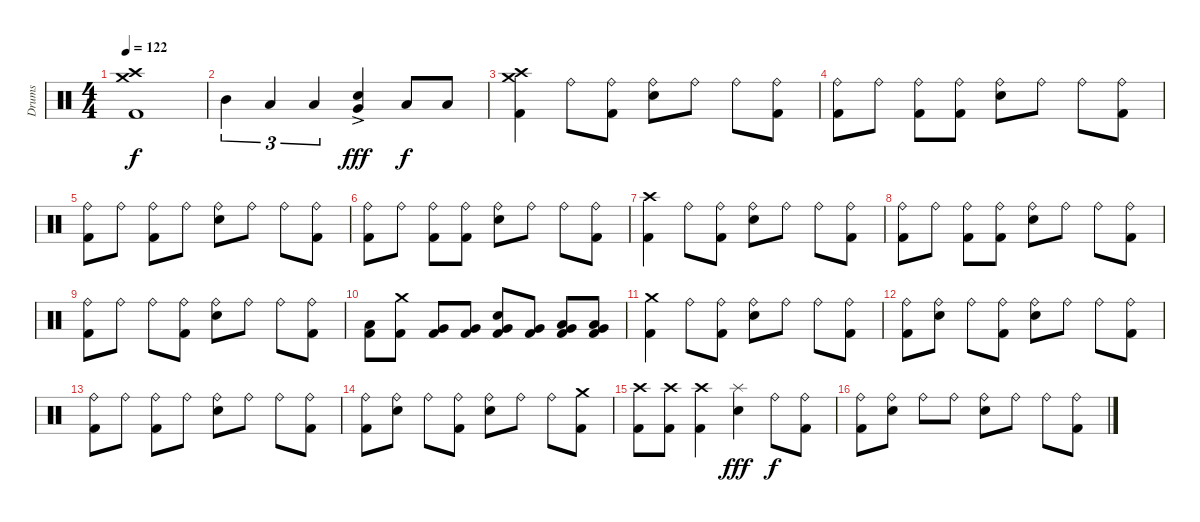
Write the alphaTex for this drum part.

\track ("Drums" "Drums") {instrument percussion}
\staff {score}
\articulation defaults
\ts (4 4)
\tempo 122
\clef neutral
\ks c
("Crash high (hit)" "Crash medium (hit)" "Kick (hit) 2").1{dy f} |
"Mid Tom (hit)".4{tu (3 2)} "Low Tom (hit)".4{tu (3 2)} "Low Tom (hit)".4{tu (3 2)} ("Snare (hit) 2" "Very Low Tom (hit)"{ac}).4{dy fff} "Low Floor Tom (hit)".8{dy f} "Low Floor Tom (hit)".8 |
("Crash high (hit)" "Crash medium (hit)" "Kick (hit) 2").4 "Ride (bell)".8 ("Ride (bell)" "Kick (hit) 2").8 ("Ride (bell)" "Snare (hit) 2").8 "Ride (bell)".8 "Ride (bell)".8 ("Ride (bell)" "Kick (hit) 2").8 |
("Ride (bell)" "Kick (hit) 2").8 "Ride (bell)".8 ("Ride (bell)" "Kick (hit) 2").8 ("Ride (bell)" "Kick (hit) 2").8 ("Ride (bell)" "Snare (hit) 2").8 "Ride (bell)".8 "Ride (bell)".8 ("Ride (bell)" "Kick (hit) 2").8 |
("Ride (bell)" "Kick (hit) 2").8 "Ride (bell)".8 ("Ride (bell)" "Kick (hit) 2").8 "Ride (bell)".8 ("Ride (bell)" "Snare (hit) 2").8 "Ride (bell)".8 "Ride (bell)".8 ("Ride (bell)" "Kick (hit) 2").8 |
("Ride (bell)" "Kick (hit) 2").8 "Ride (bell)".8 ("Ride (bell)" "Kick (hit) 2").8 ("Ride (bell)" "Kick (hit) 2").8 ("Ride (bell)" "Snare (hit) 2").8 "Ride (bell)".8 "Ride (bell)".8 ("Ride (bell)" "Kick (hit) 2").8 |
("Crash high (hit)" "Kick (hit) 2").4 "Ride (bell)".8 ("Ride (bell)" "Kick (hit) 2").8 ("Ride (bell)" "Snare (hit) 2").8 "Ride (bell)".8 "Ride (bell)".8 ("Ride (bell)" "Kick (hit) 2").8 |
("Ride (bell)" "Kick (hit) 2").8 "Ride (bell)".8 ("Ride (bell)" "Kick (hit) 2").8 ("Ride (bell)" "Kick (hit) 2").8 ("Ride (bell)" "Snare (hit) 2").8 "Ride (bell)".8 "Ride (bell)".8 ("Ride (bell)" "Kick (hit) 2").8 |
("Ride (bell)" "Kick (hit) 2").8 "Ride (bell)".8 "Ride (bell)".8 ("Ride (bell)" "Kick (hit) 2").8 ("Ride (bell)" "Snare (hit) 2").8 "Ride (bell)".8 "Ride (bell)".8 ("Ride (bell)" "Kick (hit) 2").8 |
("Low Tom (hit)" "Kick (hit) 2").8 ("Crash medium (hit)" "Kick (hit) 2").8 ("Very Low Tom (hit)" "Kick (hit) 2").8 ("Very Low Tom (hit)" "Kick (hit) 2").8 ("Snare (hit) 2" "Very Low Tom (hit)" "Kick (hit) 2").8 ("Very Low Tom (hit)" "Kick (hit) 2").8 ("Very Low Tom (hit)" "Low Floor Tom (hit)" "Kick (hit) 2").8 ("Very Low Tom (hit)" "Low Floor Tom (hit)" "Kick (hit) 2").8 |
("Crash medium (hit)" "Kick (hit) 2").4 "Ride (bell)".8 ("Ride (bell)" "Kick (hit) 2").8 ("Ride (bell)" "Snare (hit) 2").8 "Ride (bell)".8 "Ride (bell)".8 ("Ride (bell)" "Kick (hit) 2").8 |
("Ride (bell)" "Kick (hit) 2").8 ("Ride (bell)" "Snare (hit) 2").8 "Ride (bell)".8 ("Ride (bell)" "Kick (hit) 2").8 ("Ride (bell)" "Snare (hit) 2").8 "Ride (bell)".8 "Ride (bell)".8 ("Ride (bell)" "Kick (hit) 2").8 |
("Ride (bell)" "Kick (hit) 2").8 "Ride (bell)".8 ("Ride (bell)" "Kick (hit) 2").8 "Ride (bell)".8 ("Ride (bell)" "Snare (hit) 2").8 "Ride (bell)".8 "Ride (bell)".8 ("Ride (bell)" "Kick (hit) 2").8 |
("Ride (bell)" "Kick (hit) 2").8 ("Ride (bell)" "Snare (hit) 2").8 "Ride (bell)".8 ("Ride (bell)" "Kick (hit) 2").8 ("Ride (bell)" "Snare (hit) 2").8 "Ride (bell)".8 "Ride (bell)".8 ("Crash medium (hit)" "Kick (hit) 2").8 |
("Crash high (hit)" "Kick (hit) 2").8 ("Crash high (hit)" "Kick (hit) 2").8 ("Crash high (hit)" "Kick (hit) 2").4 ("Splash (hit)" "Snare (hit) 2").4{dy fff} "Ride (bell)".8{dy f} ("Ride (bell)" "Kick (hit) 2").8 |
("Ride (bell)" "Kick (hit) 2").8 ("Ride (bell)" "Snare (hit) 2").8 "Ride (bell)".8 "Ride (bell)".8 ("Ride (bell)" "Snare (hit) 2").8 "Ride (bell)".8 "Ride (bell)".8 ("Ride (bell)" "Kick (hit) 2").8
